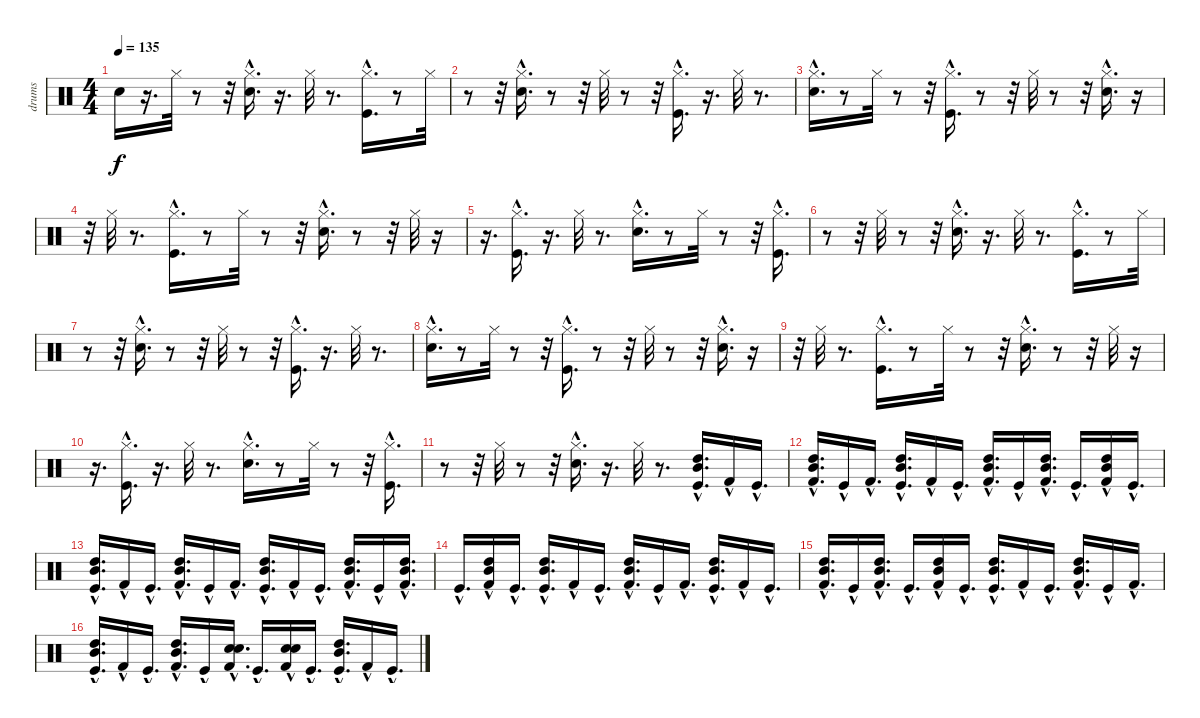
\track ("drums" "drums") {instrument percussion}
\staff {score}
\articulation defaults
\ts (4 4)
\tempo 135
\clef neutral
\ks c "Snare (hit)"{t}.16{dy f}
r.16{d} "Hi-Hat (closed)".32 r.8 r.32 ("Snare (hit) 2"{hac} "Hi-Hat (closed)").16{d} r.16{d} "Hi-Hat (closed)".32 r.8{d} ("Hi-Hat (closed)" "Kick (hit)"{hac}).16{d} r.8 "Hi-Hat (closed)".32 |
r.8 r.32 ("Snare (hit) 2"{hac} "Hi-Hat (closed)").16{d} r.8 r.32 "Hi-Hat (closed)".32 r.8 r.32 ("Kick (hit)"{hac} "Hi-Hat (closed)").16{d} r.16{d} "Hi-Hat (closed)".32 r.8{d} |
("Hi-Hat (closed)" "Snare (hit) 2"{hac}).16{d} r.8 "Hi-Hat (closed)".32 r.8 r.32 ("Kick (hit)"{hac} "Hi-Hat (closed)").16{d} r.8 r.32 "Hi-Hat (closed)".32 r.8 r.32 ("Snare (hit) 2"{hac} "Hi-Hat (closed)").16{d} r.16 |
r.32 "Hi-Hat (closed)".32 r.8{d} ("Hi-Hat (closed)" "Kick (hit)"{hac}).16{d} r.8 "Hi-Hat (closed)".32 r.8 r.32 ("Snare (hit) 2"{hac} "Hi-Hat (closed)").16{d} r.8 r.32 "Hi-Hat (closed)".32 r.16 |
r.16{d} ("Kick (hit)"{hac} "Hi-Hat (closed)").16{d} r.16{d} "Hi-Hat (closed)".32 r.8{d} ("Hi-Hat (closed)" "Snare (hit) 2"{hac}).16{d} r.8 "Hi-Hat (closed)".32 r.8 r.32 ("Kick (hit)"{hac} "Hi-Hat (closed)").16{d} |
r.8 r.32 "Hi-Hat (closed)".32 r.8 r.32 ("Snare (hit) 2"{hac} "Hi-Hat (closed)").16{d} r.16{d} "Hi-Hat (closed)".32 r.8{d} ("Hi-Hat (closed)" "Kick (hit)"{hac}).16{d} r.8 "Hi-Hat (closed)".32 |
r.8 r.32 ("Snare (hit) 2"{hac} "Hi-Hat (closed)").16{d} r.8 r.32 "Hi-Hat (closed)".32 r.8 r.32 ("Kick (hit)"{hac} "Hi-Hat (closed)").16{d} r.16{d} "Hi-Hat (closed)".32 r.8{d} |
("Hi-Hat (closed)" "Snare (hit) 2"{hac}).16{d} r.8 "Hi-Hat (closed)".32 r.8 r.32 ("Kick (hit)"{hac} "Hi-Hat (closed)").16{d} r.8 r.32 "Hi-Hat (closed)".32 r.8 r.32 ("Snare (hit) 2"{hac} "Hi-Hat (closed)").16{d} r.16 |
r.32 "Hi-Hat (closed)".32 r.8{d} ("Hi-Hat (closed)" "Kick (hit)"{hac}).16{d} r.8 "Hi-Hat (closed)".32 r.8 r.32 ("Hi-Hat (closed)" "Snare (hit) 2"{hac}).16{d} r.8 r.32 "Hi-Hat (closed)".32 r.16 |
r.16{d} ("Kick (hit)"{hac} "Hi-Hat (closed)").16{d} r.16{d} "Hi-Hat (closed)".32 r.8{d} ("Hi-Hat (closed)" "Snare (hit) 2"{hac}).16{d} r.8 "Hi-Hat (closed)".32 r.8 r.32 ("Kick (hit)"{hac} "Hi-Hat (closed)").16{d} |
r.8 r.32 "Hi-Hat (closed)".32 r.8 r.32 ("Snare (hit) 2"{hac} "Hi-Hat (closed)").16{d} r.16{d} "Hi-Hat (closed)".32 r.8{d} ("High Tom (hit)"{hac} "Mid Tom (hit)"{hac} "Kick (hit)"{hac}).16{d} "Kick (hit) 2"{hac}.16 "Kick (hit)"{hac}.16{d} |
("High Tom (hit)"{hac} "Mid Tom (hit)"{hac} "Kick (hit) 2"{hac}).16{d} "Kick (hit)"{hac}.16 "Kick (hit) 2"{hac}.16{d} ("High Tom (hit)"{hac} "Mid Tom (hit)"{hac} "Kick (hit)"{hac}).16{d} "Kick (hit) 2"{hac}.16 "Kick (hit)"{hac}.16{d} ("Mid Tom (hit)"{hac} "High Tom (hit)"{hac} "Kick (hit) 2"{hac}).16{d} "Kick (hit)"{hac}.16 ("Mid Tom (hit)"{hac} "Kick (hit) 2"{hac} "High Tom (hit)"{hac}).16{d} "Kick (hit)"{hac}.16{d} ("Kick (hit) 2"{hac} "High Tom (hit)"{hac} "Mid Tom (hit)"{hac}).16 "Kick (hit)"{hac}.16{d} |
("High Tom (hit)"{hac} "Mid Tom (hit)"{hac} "Kick (hit)"{hac}).16{d} "Kick (hit) 2"{hac}.16 "Kick (hit)"{hac}.16{d} ("High Tom (hit)"{hac} "Mid Tom (hit)"{hac} "Kick (hit) 2"{hac}).16{d} "Kick (hit)"{hac}.16 "Kick (hit) 2"{hac}.16{d} ("High Tom (hit)"{hac} "Mid Tom (hit)"{hac} "Kick (hit)"{hac}).16{d} "Kick (hit) 2"{hac}.16 "Kick (hit)"{hac}.16{d} ("Mid Tom (hit)"{hac} "High Tom (hit)"{hac} "Kick (hit) 2"{hac}).16{d} "Kick (hit)"{hac}.16 ("Mid Tom (hit)"{hac} "Kick (hit) 2"{hac} "High Tom (hit)"{hac}).16{d} |
"Kick (hit)"{hac}.16{d} ("Kick (hit) 2"{hac} "High Tom (hit)"{hac} "Mid Tom (hit)"{hac}).16 "Kick (hit)"{hac}.16{d} ("High Tom (hit)"{hac} "Mid Tom (hit)"{hac} "Kick (hit)"{hac}).16{d} "Kick (hit) 2"{hac}.16 "Kick (hit)"{hac}.16{d} ("High Tom (hit)"{hac} "Mid Tom (hit)"{hac} "Kick (hit) 2"{hac}).16{d} "Kick (hit)"{hac}.16 "Kick (hit) 2"{hac}.16{d} ("High Tom (hit)"{hac} "Mid Tom (hit)"{hac} "Kick (hit)"{hac}).16{d} "Kick (hit) 2"{hac}.16 "Kick (hit)"{hac}.16{d} |
("Mid Tom (hit)"{hac} "High Tom (hit)"{hac} "Kick (hit) 2"{hac}).16{d} "Kick (hit)"{hac}.16 ("Mid Tom (hit)"{hac} "Kick (hit) 2"{hac} "High Tom (hit)"{hac}).16{d} "Kick (hit)"{hac}.16{d} ("Kick (hit) 2"{hac} "High Tom (hit)"{hac} "Mid Tom (hit)"{hac}).16 "Kick (hit)"{hac}.16{d} ("High Tom (hit)"{hac} "Mid Tom (hit)"{hac} "Kick (hit)"{hac}).16{d} "Kick (hit) 2"{hac}.16 "Kick (hit)"{hac}.16{d} ("High Tom (hit)"{hac} "Mid Tom (hit)"{hac} "Kick (hit) 2"{hac}).16{d} "Kick (hit)"{hac}.16 "Kick (hit) 2"{hac}.16{d} |
("High Tom (hit)"{hac} "Mid Tom (hit)"{hac} "Kick (hit)"{hac}).16{d} "Kick (hit) 2"{hac}.16 "Kick (hit)"{hac}.16{d} ("Mid Tom (hit)"{hac} "High Tom (hit)"{hac} "Kick (hit) 2"{hac}).16{d} "Kick (hit)"{hac}.16 ("Snare (hit) 2"{hac} "Kick (hit) 2"{hac} "Snare (hit) 2"{hac}).16{d} "Kick (hit)"{hac}.16{d} ("Kick (hit) 2"{hac} "Snare (hit) 2"{hac} "Snare (hit) 2"{hac}).16 "Kick (hit)"{hac}.16{d} ("High Tom (hit)"{hac} "Mid Tom (hit)"{hac} "Kick (hit)"{hac}).16{d} "Kick (hit) 2"{hac}.16 "Kick (hit)"{hac}.16{d}
